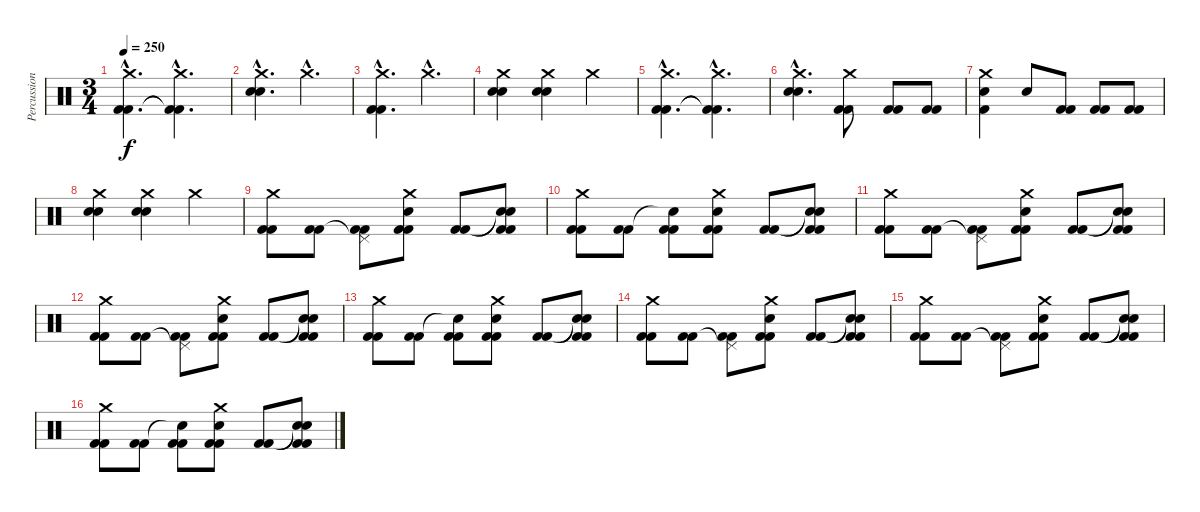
\track ("Percussion" "Percussion") {instrument percussion}
\staff {score}
\articulation defaults
\ts (3 4)
\tempo 250
\clef neutral
\ks c
("Crash medium (hit)"{hac} "Kick (hit) 2"{hac} "Kick (hit) 2"{hac}).4{d dy f} ("Crash medium (hit)"{hac} "Kick (hit) 2"{hac t} "Kick (hit) 2"{hac t}).4{d} |
("Snare (hit) 2"{hac} "Snare (hit) 2"{hac} "Crash medium (hit)"{hac}).4{d} "Crash medium (hit)"{hac}.4{d} |
("Crash medium (hit)"{hac} "Kick (hit) 2"{hac} "Kick (hit) 2"{hac}).4{d} "Crash medium (hit)"{hac}.4{d} |
("Snare (hit) 2" "Snare (hit) 2" "Crash medium (hit)").4 ("Snare (hit) 2" "Snare (hit) 2" "Crash medium (hit)").4 "Crash medium (hit)".4 |
("Crash medium (hit)"{hac} "Kick (hit) 2"{hac} "Kick (hit) 2"{hac}).4{d} ("Crash medium (hit)"{hac} "Kick (hit) 2"{hac t} "Kick (hit) 2"{hac t}).4{d} |
("Snare (hit) 2"{hac} "Snare (hit) 2"{hac} "Crash medium (hit)"{hac}).4{d} ("Crash medium (hit)" "Kick (hit) 2" "Kick (hit) 2").8 ("Kick (hit) 2" "Kick (hit) 2").8 ("Kick (hit) 2" "Kick (hit) 2").8 |
("Snare (hit) 2" "Crash medium (hit)" "Kick (hit) 2").4 "Snare (hit) 2".8 ("Kick (hit) 2" "Kick (hit) 2").8 ("Kick (hit) 2" "Kick (hit) 2").8 ("Kick (hit) 2" "Kick (hit) 2").8 |
("Snare (hit) 2" "Snare (hit) 2" "Crash medium (hit)").4 ("Snare (hit) 2" "Snare (hit) 2" "Crash medium (hit)").4 "Crash medium (hit)".4 |
("Crash medium (hit)" "Kick (hit) 2" "Kick (hit) 2").8 ("Kick (hit) 2" "Kick (hit) 2").8 ("Pedal Hi-Hat (hit)"{t} "Kick (hit) 2" "Kick (hit) 2").8 ("Snare (hit) 2" "Crash medium (hit)" "Kick (hit) 2" "Kick (hit) 2").8 ("Kick (hit) 2" "Kick (hit) 2").8 ("Snare (hit)"{t} "Snare (hit)"{t} "Kick (hit) 2" "Kick (hit) 2").8 |
("Crash medium (hit)" "Kick (hit) 2" "Kick (hit) 2").8 ("Kick (hit) 2" "Kick (hit) 2").8 ("Snare (hit)"{t} "Kick (hit) 2" "Kick (hit) 2").8 ("Snare (hit) 2" "Crash medium (hit)" "Kick (hit) 2" "Kick (hit) 2").8 ("Kick (hit) 2" "Kick (hit) 2").8 ("Snare (hit)"{t} "Snare (hit)"{t} "Kick (hit) 2" "Kick (hit) 2").8 |
("Crash medium (hit)" "Kick (hit) 2" "Kick (hit) 2").8 ("Kick (hit) 2" "Kick (hit) 2").8 ("Pedal Hi-Hat (hit)"{t} "Kick (hit) 2" "Kick (hit) 2").8 ("Snare (hit) 2" "Crash medium (hit)" "Kick (hit) 2" "Kick (hit) 2").8 ("Kick (hit) 2" "Kick (hit) 2").8 ("Snare (hit)"{t} "Snare (hit)"{t} "Kick (hit) 2" "Kick (hit) 2").8 |
("Crash medium (hit)" "Kick (hit) 2" "Kick (hit) 2").8 ("Kick (hit) 2" "Kick (hit) 2").8 ("Pedal Hi-Hat (hit)"{t} "Kick (hit) 2" "Kick (hit) 2").8 ("Snare (hit) 2" "Crash medium (hit)" "Kick (hit) 2" "Kick (hit) 2").8 ("Kick (hit) 2" "Kick (hit) 2").8 ("Snare (hit)"{t} "Snare (hit)"{t} "Kick (hit) 2" "Kick (hit) 2").8 |
("Crash medium (hit)" "Kick (hit) 2" "Kick (hit) 2").8 ("Kick (hit) 2" "Kick (hit) 2").8 ("Snare (hit)"{t} "Kick (hit) 2" "Kick (hit) 2").8 ("Snare (hit) 2" "Crash medium (hit)" "Kick (hit) 2" "Kick (hit) 2").8 ("Kick (hit) 2" "Kick (hit) 2").8 ("Snare (hit)"{t} "Snare (hit)"{t} "Kick (hit) 2" "Kick (hit) 2").8 |
("Crash medium (hit)" "Kick (hit) 2" "Kick (hit) 2").8 ("Kick (hit) 2" "Kick (hit) 2").8 ("Pedal Hi-Hat (hit)"{t} "Kick (hit) 2" "Kick (hit) 2").8 ("Snare (hit) 2" "Crash medium (hit)" "Kick (hit) 2" "Kick (hit) 2").8 ("Kick (hit) 2" "Kick (hit) 2").8 ("Snare (hit)"{t} "Snare (hit)"{t} "Kick (hit) 2" "Kick (hit) 2").8 |
("Crash medium (hit)" "Kick (hit) 2" "Kick (hit) 2").8 ("Kick (hit) 2" "Kick (hit) 2").8 ("Pedal Hi-Hat (hit)"{t} "Kick (hit) 2" "Kick (hit) 2").8 ("Snare (hit) 2" "Crash medium (hit)" "Kick (hit) 2" "Kick (hit) 2").8 ("Kick (hit) 2" "Kick (hit) 2").8 ("Snare (hit)"{t} "Snare (hit)"{t} "Kick (hit) 2" "Kick (hit) 2").8 |
("Crash medium (hit)" "Kick (hit) 2" "Kick (hit) 2").8 ("Kick (hit) 2" "Kick (hit) 2").8 ("Snare (hit)"{t} "Kick (hit) 2" "Kick (hit) 2").8 ("Snare (hit) 2" "Crash medium (hit)" "Kick (hit) 2" "Kick (hit) 2").8 ("Kick (hit) 2" "Kick (hit) 2").8 ("Snare (hit)"{t} "Snare (hit)"{t} "Kick (hit) 2" "Kick (hit) 2").8
